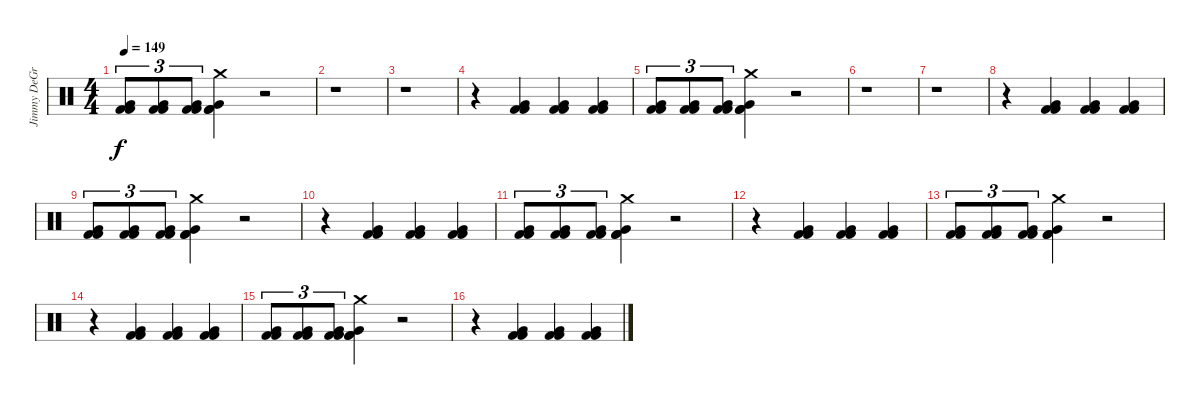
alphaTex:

\track ("Jimmy DeGrasso" "Jimmy DeGr") {instrument percussion}
\staff {score}
\articulation defaults
\ts (4 4)
\tempo 149
\clef neutral
\ks c
("Very Low Tom (hit)" "Kick (hit) 2" "Kick (hit) 2").8{tu (3 2) dy f} ("Very Low Tom (hit)" "Kick (hit) 2" "Kick (hit) 2").8{tu (3 2)} ("Very Low Tom (hit)" "Kick (hit) 2" "Kick (hit) 2").8{tu (3 2)} ("Crash medium (hit)" "Very Low Tom (hit)" "Kick (hit) 2" "Kick (hit) 2").4 r.2 |
r.1 |
r.1 |
r.4 ("Very Low Tom (hit)" "Kick (hit) 2" "Kick (hit) 2").4 ("Very Low Tom (hit)" "Kick (hit) 2" "Kick (hit) 2").4 ("Very Low Tom (hit)" "Kick (hit) 2" "Kick (hit) 2").4 |
("Very Low Tom (hit)" "Kick (hit) 2" "Kick (hit) 2").8{tu (3 2)} ("Very Low Tom (hit)" "Kick (hit) 2" "Kick (hit) 2").8{tu (3 2)} ("Very Low Tom (hit)" "Kick (hit) 2" "Kick (hit) 2").8{tu (3 2)} ("Crash medium (hit)" "Very Low Tom (hit)" "Kick (hit) 2" "Kick (hit) 2").4 r.2 |
r.1 |
r.1 |
r.4 ("Very Low Tom (hit)" "Kick (hit) 2" "Kick (hit) 2").4 ("Very Low Tom (hit)" "Kick (hit) 2" "Kick (hit) 2").4 ("Very Low Tom (hit)" "Kick (hit) 2" "Kick (hit) 2").4 |
("Very Low Tom (hit)" "Kick (hit) 2" "Kick (hit) 2").8{tu (3 2)} ("Very Low Tom (hit)" "Kick (hit) 2" "Kick (hit) 2").8{tu (3 2)} ("Very Low Tom (hit)" "Kick (hit) 2" "Kick (hit) 2").8{tu (3 2)} ("Crash medium (hit)" "Very Low Tom (hit)" "Kick (hit) 2" "Kick (hit) 2").4 r.2 |
r.4 ("Very Low Tom (hit)" "Kick (hit) 2" "Kick (hit) 2").4 ("Very Low Tom (hit)" "Kick (hit) 2" "Kick (hit) 2").4 ("Very Low Tom (hit)" "Kick (hit) 2" "Kick (hit) 2").4 |
("Very Low Tom (hit)" "Kick (hit) 2" "Kick (hit) 2").8{tu (3 2)} ("Very Low Tom (hit)" "Kick (hit) 2" "Kick (hit) 2").8{tu (3 2)} ("Very Low Tom (hit)" "Kick (hit) 2" "Kick (hit) 2").8{tu (3 2)} ("Crash medium (hit)" "Very Low Tom (hit)" "Kick (hit) 2" "Kick (hit) 2").4 r.2 |
r.4 ("Very Low Tom (hit)" "Kick (hit) 2" "Kick (hit) 2").4 ("Very Low Tom (hit)" "Kick (hit) 2" "Kick (hit) 2").4 ("Very Low Tom (hit)" "Kick (hit) 2" "Kick (hit) 2").4 |
("Very Low Tom (hit)" "Kick (hit) 2" "Kick (hit) 2").8{tu (3 2)} ("Very Low Tom (hit)" "Kick (hit) 2" "Kick (hit) 2").8{tu (3 2)} ("Very Low Tom (hit)" "Kick (hit) 2" "Kick (hit) 2").8{tu (3 2)} ("Crash medium (hit)" "Very Low Tom (hit)" "Kick (hit) 2" "Kick (hit) 2").4 r.2 |
r.4 ("Very Low Tom (hit)" "Kick (hit) 2" "Kick (hit) 2").4 ("Very Low Tom (hit)" "Kick (hit) 2" "Kick (hit) 2").4 ("Very Low Tom (hit)" "Kick (hit) 2" "Kick (hit) 2").4 |
("Very Low Tom (hit)" "Kick (hit) 2" "Kick (hit) 2").8{tu (3 2)} ("Very Low Tom (hit)" "Kick (hit) 2" "Kick (hit) 2").8{tu (3 2)} ("Very Low Tom (hit)" "Kick (hit) 2" "Kick (hit) 2").8{tu (3 2)} ("Crash medium (hit)" "Very Low Tom (hit)" "Kick (hit) 2" "Kick (hit) 2").4 r.2 |
r.4 ("Very Low Tom (hit)" "Kick (hit) 2" "Kick (hit) 2").4 ("Very Low Tom (hit)" "Kick (hit) 2" "Kick (hit) 2").4 ("Very Low Tom (hit)" "Kick (hit) 2" "Kick (hit) 2").4
